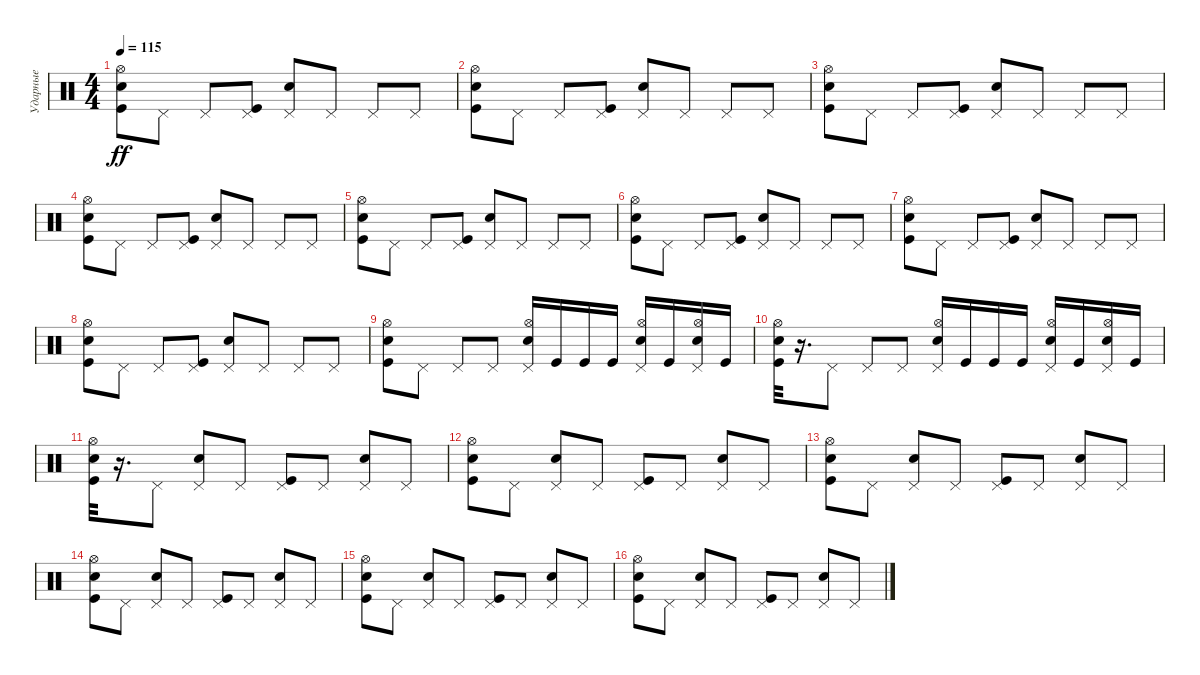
\track ("Ударные" "Ударные") {instrument percussion}
\staff {score}
\articulation defaults
\ts (4 4)
\tempo 115
\clef neutral
\ks c
("Kick (hit)" "Electric Snare (hit)" "Hi-Hat (open)").8{dy ff} "Pedal Hi-Hat (hit)".8 "Pedal Hi-Hat (hit)".8 ("Kick (hit)" "Pedal Hi-Hat (hit)").8 ("Electric Snare (hit)" "Pedal Hi-Hat (hit)").8 "Pedal Hi-Hat (hit)".8 "Pedal Hi-Hat (hit)".8 "Pedal Hi-Hat (hit)".8 |
("Kick (hit)" "Electric Snare (hit)" "Hi-Hat (open)").8 "Pedal Hi-Hat (hit)".8 "Pedal Hi-Hat (hit)".8 ("Kick (hit)" "Pedal Hi-Hat (hit)").8 ("Electric Snare (hit)" "Pedal Hi-Hat (hit)").8 "Pedal Hi-Hat (hit)".8 "Pedal Hi-Hat (hit)".8 "Pedal Hi-Hat (hit)".8 |
("Kick (hit)" "Electric Snare (hit)" "Hi-Hat (open)").8 "Pedal Hi-Hat (hit)".8 "Pedal Hi-Hat (hit)".8 ("Kick (hit)" "Pedal Hi-Hat (hit)").8 ("Electric Snare (hit)" "Pedal Hi-Hat (hit)").8 "Pedal Hi-Hat (hit)".8 "Pedal Hi-Hat (hit)".8 "Pedal Hi-Hat (hit)".8 |
("Kick (hit)" "Electric Snare (hit)" "Hi-Hat (open)").8 "Pedal Hi-Hat (hit)".8 "Pedal Hi-Hat (hit)".8 ("Kick (hit)" "Pedal Hi-Hat (hit)").8 ("Electric Snare (hit)" "Pedal Hi-Hat (hit)").8 "Pedal Hi-Hat (hit)".8 "Pedal Hi-Hat (hit)".8 "Pedal Hi-Hat (hit)".8 |
("Kick (hit)" "Electric Snare (hit)" "Hi-Hat (open)").8 "Pedal Hi-Hat (hit)".8 "Pedal Hi-Hat (hit)".8 ("Kick (hit)" "Pedal Hi-Hat (hit)").8 ("Electric Snare (hit)" "Pedal Hi-Hat (hit)").8 "Pedal Hi-Hat (hit)".8 "Pedal Hi-Hat (hit)".8 "Pedal Hi-Hat (hit)".8 |
("Kick (hit)" "Electric Snare (hit)" "Hi-Hat (open)").8 "Pedal Hi-Hat (hit)".8 "Pedal Hi-Hat (hit)".8 ("Kick (hit)" "Pedal Hi-Hat (hit)").8 ("Electric Snare (hit)" "Pedal Hi-Hat (hit)").8 "Pedal Hi-Hat (hit)".8 "Pedal Hi-Hat (hit)".8 "Pedal Hi-Hat (hit)".8 |
("Kick (hit)" "Electric Snare (hit)" "Hi-Hat (open)").8 "Pedal Hi-Hat (hit)".8 "Pedal Hi-Hat (hit)".8 ("Kick (hit)" "Pedal Hi-Hat (hit)").8 ("Electric Snare (hit)" "Pedal Hi-Hat (hit)").8 "Pedal Hi-Hat (hit)".8 "Pedal Hi-Hat (hit)".8 "Pedal Hi-Hat (hit)".8 |
("Kick (hit)" "Electric Snare (hit)" "Hi-Hat (open)").8 "Pedal Hi-Hat (hit)".8 "Pedal Hi-Hat (hit)".8 ("Kick (hit)" "Pedal Hi-Hat (hit)").8 ("Electric Snare (hit)" "Pedal Hi-Hat (hit)").8 "Pedal Hi-Hat (hit)".8 "Pedal Hi-Hat (hit)".8 "Pedal Hi-Hat (hit)".8 |
("Kick (hit)" "Electric Snare (hit)" "Hi-Hat (open)").8 "Pedal Hi-Hat (hit)".8 "Pedal Hi-Hat (hit)".8 "Pedal Hi-Hat (hit)".8 ("Electric Snare (hit)" "Pedal Hi-Hat (hit)" "Hi-Hat (open)").16 "Kick (hit)".16 "Kick (hit)".16 "Kick (hit)".16 ("Electric Snare (hit)" "Pedal Hi-Hat (hit)" "Hi-Hat (open)").16 "Kick (hit)".16 ("Electric Snare (hit)" "Pedal Hi-Hat (hit)" "Hi-Hat (open)").16 "Kick (hit)".16 |
("Kick (hit)" "Electric Snare (hit)" "Hi-Hat (open)").32 r.16{d} "Pedal Hi-Hat (hit)".8 "Pedal Hi-Hat (hit)".8 "Pedal Hi-Hat (hit)".8 ("Electric Snare (hit)" "Pedal Hi-Hat (hit)" "Hi-Hat (open)").16 "Kick (hit)".16 "Kick (hit)".16 "Kick (hit)".16 ("Electric Snare (hit)" "Pedal Hi-Hat (hit)" "Hi-Hat (open)").16 "Kick (hit)".16 ("Electric Snare (hit)" "Pedal Hi-Hat (hit)" "Hi-Hat (open)").16 "Kick (hit)".16 |
("Kick (hit)" "Electric Snare (hit)" "Hi-Hat (open)").32 r.16{d} "Pedal Hi-Hat (hit)".8 ("Electric Snare (hit)" "Pedal Hi-Hat (hit)").8 "Pedal Hi-Hat (hit)".8 ("Kick (hit)" "Pedal Hi-Hat (hit)").8 "Pedal Hi-Hat (hit)".8 ("Electric Snare (hit)" "Pedal Hi-Hat (hit)").8 "Pedal Hi-Hat (hit)".8 |
("Kick (hit)" "Electric Snare (hit)" "Hi-Hat (open)").8 "Pedal Hi-Hat (hit)".8 ("Electric Snare (hit)" "Pedal Hi-Hat (hit)").8 "Pedal Hi-Hat (hit)".8 ("Kick (hit)" "Pedal Hi-Hat (hit)").8 "Pedal Hi-Hat (hit)".8 ("Electric Snare (hit)" "Pedal Hi-Hat (hit)").8 "Pedal Hi-Hat (hit)".8 |
("Kick (hit)" "Electric Snare (hit)" "Hi-Hat (open)").8 "Pedal Hi-Hat (hit)".8 ("Electric Snare (hit)" "Pedal Hi-Hat (hit)").8 "Pedal Hi-Hat (hit)".8 ("Kick (hit)" "Pedal Hi-Hat (hit)").8 "Pedal Hi-Hat (hit)".8 ("Electric Snare (hit)" "Pedal Hi-Hat (hit)").8 "Pedal Hi-Hat (hit)".8 |
("Kick (hit)" "Electric Snare (hit)" "Hi-Hat (open)").8 "Pedal Hi-Hat (hit)".8 ("Electric Snare (hit)" "Pedal Hi-Hat (hit)").8 "Pedal Hi-Hat (hit)".8 ("Kick (hit)" "Pedal Hi-Hat (hit)").8 "Pedal Hi-Hat (hit)".8 ("Electric Snare (hit)" "Pedal Hi-Hat (hit)").8 "Pedal Hi-Hat (hit)".8 |
("Kick (hit)" "Electric Snare (hit)" "Hi-Hat (open)").8 "Pedal Hi-Hat (hit)".8 ("Electric Snare (hit)" "Pedal Hi-Hat (hit)").8 "Pedal Hi-Hat (hit)".8 ("Kick (hit)" "Pedal Hi-Hat (hit)").8 "Pedal Hi-Hat (hit)".8 ("Electric Snare (hit)" "Pedal Hi-Hat (hit)").8 "Pedal Hi-Hat (hit)".8 |
("Kick (hit)" "Electric Snare (hit)" "Hi-Hat (open)").8 "Pedal Hi-Hat (hit)".8 ("Electric Snare (hit)" "Pedal Hi-Hat (hit)").8 "Pedal Hi-Hat (hit)".8 ("Kick (hit)" "Pedal Hi-Hat (hit)").8 "Pedal Hi-Hat (hit)".8 ("Electric Snare (hit)" "Pedal Hi-Hat (hit)").8 "Pedal Hi-Hat (hit)".8
